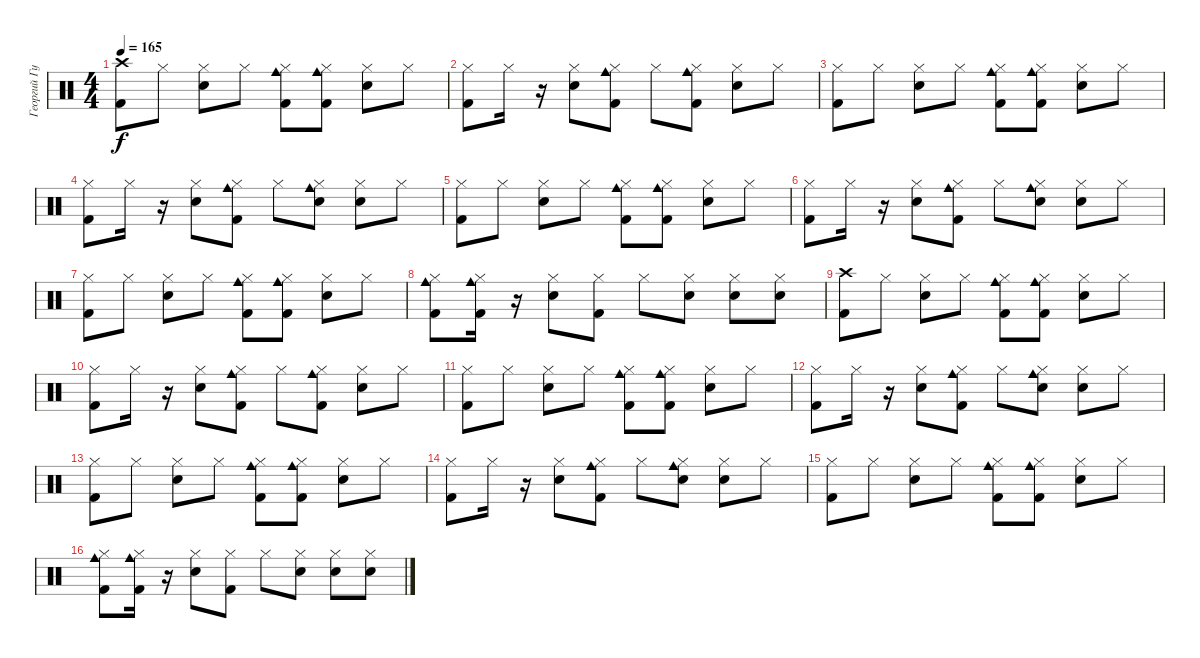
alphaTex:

\track ("Георгий Гурьянов" "Георгий Гу") {instrument percussion}
\staff {score}
\articulation defaults
\ts (4 4)
\tempo 165
\clef neutral
\ks c
("Crash high (hit)" "Kick (hit) 2").8{dy f} "Hi-Hat (closed)".8 ("Hi-Hat (closed)" "Snare (hit) 2").8 "Hi-Hat (closed)".8 ("Hi-Hat (closed)" "Cowbell medium (hit)" "Kick (hit) 2").8 ("Hi-Hat (closed)" "Cowbell medium (hit)" "Kick (hit) 2").8 ("Hi-Hat (closed)" "Snare (hit) 2").8 "Hi-Hat (closed)".8 |
("Hi-Hat (closed)" "Kick (hit) 2").8 "Hi-Hat (closed)".16 r.16 ("Hi-Hat (closed)" "Snare (hit) 2").8 ("Hi-Hat (closed)" "Kick (hit) 2" "Cowbell medium (hit)").8 "Hi-Hat (closed)".8 ("Hi-Hat (closed)" "Kick (hit) 2" "Cowbell medium (hit)").8 ("Hi-Hat (closed)" "Snare (hit) 2").8 "Hi-Hat (closed)".8 |
("Hi-Hat (closed)" "Kick (hit) 2").8 "Hi-Hat (closed)".8 ("Hi-Hat (closed)" "Snare (hit) 2").8 "Hi-Hat (closed)".8 ("Hi-Hat (closed)" "Cowbell medium (hit)" "Kick (hit) 2").8 ("Hi-Hat (closed)" "Cowbell medium (hit)" "Kick (hit) 2").8 ("Hi-Hat (closed)" "Snare (hit) 2").8 "Hi-Hat (closed)".8 |
("Hi-Hat (closed)" "Kick (hit) 2").8 "Hi-Hat (closed)".16 r.16 ("Hi-Hat (closed)" "Snare (hit) 2").8 ("Hi-Hat (closed)" "Kick (hit) 2" "Cowbell medium (hit)").8 "Hi-Hat (closed)".8 ("Hi-Hat (closed)" "Hand Clap (hit)" "Cowbell medium (hit)").8 ("Hi-Hat (closed)" "Snare (hit) 2").8 "Hi-Hat (closed)".8 |
("Hi-Hat (closed)" "Kick (hit) 2").8 "Hi-Hat (closed)".8 ("Hi-Hat (closed)" "Snare (hit) 2").8 "Hi-Hat (closed)".8 ("Hi-Hat (closed)" "Cowbell medium (hit)" "Kick (hit) 2").8 ("Hi-Hat (closed)" "Cowbell medium (hit)" "Kick (hit) 2").8 ("Hi-Hat (closed)" "Snare (hit) 2").8 "Hi-Hat (closed)".8 |
("Hi-Hat (closed)" "Kick (hit) 2").8 "Hi-Hat (closed)".16 r.16 ("Hi-Hat (closed)" "Snare (hit) 2").8 ("Hi-Hat (closed)" "Kick (hit) 2" "Cowbell medium (hit)").8 "Hi-Hat (closed)".8 ("Hi-Hat (closed)" "Hand Clap (hit)" "Cowbell medium (hit)").8 ("Hi-Hat (closed)" "Snare (hit) 2").8 "Hi-Hat (closed)".8 |
("Hi-Hat (closed)" "Kick (hit) 2").8 "Hi-Hat (closed)".8 ("Hi-Hat (closed)" "Snare (hit) 2").8 "Hi-Hat (closed)".8 ("Hi-Hat (closed)" "Cowbell medium (hit)" "Kick (hit) 2").8 ("Hi-Hat (closed)" "Cowbell medium (hit)" "Kick (hit) 2").8 ("Hi-Hat (closed)" "Snare (hit) 2").8 "Hi-Hat (closed)".8 |
("Cowbell medium (hit)" "Hi-Hat (closed)" "Kick (hit) 2").8 ("Cowbell medium (hit)" "Kick (hit) 2" "Hi-Hat (closed)").16 r.16 ("Hi-Hat (closed)" "Snare (hit) 2").8 ("Hi-Hat (closed)" "Kick (hit) 2").8 "Hi-Hat (closed)".8 ("Hi-Hat (closed)" "Snare (hit) 2").8 ("Hi-Hat (closed)" "Snare (hit) 2").8 ("Snare (hit) 2" "Hi-Hat (closed)").8 |
("Crash high (hit)" "Kick (hit) 2").8{volume 12} "Hi-Hat (closed)".8 ("Hi-Hat (closed)" "Snare (hit) 2").8 "Hi-Hat (closed)".8 ("Hi-Hat (closed)" "Cowbell medium (hit)" "Kick (hit) 2").8 ("Hi-Hat (closed)" "Cowbell medium (hit)" "Kick (hit) 2").8 ("Hi-Hat (closed)" "Snare (hit) 2").8 "Hi-Hat (closed)".8 |
("Hi-Hat (closed)" "Kick (hit) 2").8 "Hi-Hat (closed)".16 r.16 ("Hi-Hat (closed)" "Snare (hit) 2").8 ("Hi-Hat (closed)" "Kick (hit) 2" "Cowbell medium (hit)").8 "Hi-Hat (closed)".8 ("Hi-Hat (closed)" "Kick (hit) 2" "Cowbell medium (hit)").8 ("Hi-Hat (closed)" "Snare (hit) 2").8 "Hi-Hat (closed)".8 |
("Hi-Hat (closed)" "Kick (hit) 2").8 "Hi-Hat (closed)".8 ("Hi-Hat (closed)" "Snare (hit) 2").8 "Hi-Hat (closed)".8 ("Hi-Hat (closed)" "Cowbell medium (hit)" "Kick (hit) 2").8 ("Hi-Hat (closed)" "Cowbell medium (hit)" "Kick (hit) 2").8 ("Hi-Hat (closed)" "Snare (hit) 2").8 "Hi-Hat (closed)".8 |
("Hi-Hat (closed)" "Kick (hit) 2").8 "Hi-Hat (closed)".16 r.16 ("Hi-Hat (closed)" "Snare (hit) 2").8 ("Hi-Hat (closed)" "Kick (hit) 2" "Cowbell medium (hit)").8 "Hi-Hat (closed)".8 ("Hi-Hat (closed)" "Hand Clap (hit)" "Cowbell medium (hit)").8 ("Hi-Hat (closed)" "Snare (hit) 2").8 "Hi-Hat (closed)".8 |
("Hi-Hat (closed)" "Kick (hit) 2").8 "Hi-Hat (closed)".8 ("Hi-Hat (closed)" "Snare (hit) 2").8 "Hi-Hat (closed)".8 ("Hi-Hat (closed)" "Cowbell medium (hit)" "Kick (hit) 2").8 ("Hi-Hat (closed)" "Cowbell medium (hit)" "Kick (hit) 2").8 ("Hi-Hat (closed)" "Snare (hit) 2").8 "Hi-Hat (closed)".8 |
("Hi-Hat (closed)" "Kick (hit) 2").8 "Hi-Hat (closed)".16 r.16 ("Hi-Hat (closed)" "Snare (hit) 2").8 ("Hi-Hat (closed)" "Kick (hit) 2" "Cowbell medium (hit)").8 "Hi-Hat (closed)".8 ("Hi-Hat (closed)" "Hand Clap (hit)" "Cowbell medium (hit)").8 ("Hi-Hat (closed)" "Snare (hit) 2").8 "Hi-Hat (closed)".8 |
("Hi-Hat (closed)" "Kick (hit) 2").8 "Hi-Hat (closed)".8 ("Hi-Hat (closed)" "Snare (hit) 2").8 "Hi-Hat (closed)".8 ("Hi-Hat (closed)" "Cowbell medium (hit)" "Kick (hit) 2").8 ("Hi-Hat (closed)" "Cowbell medium (hit)" "Kick (hit) 2").8 ("Hi-Hat (closed)" "Snare (hit) 2").8 "Hi-Hat (closed)".8 |
("Cowbell medium (hit)" "Hi-Hat (closed)" "Kick (hit) 2").8 ("Cowbell medium (hit)" "Kick (hit) 2" "Hi-Hat (closed)").16 r.16 ("Hi-Hat (closed)" "Snare (hit) 2").8 ("Hi-Hat (closed)" "Kick (hit) 2").8 "Hi-Hat (closed)".8 ("Hi-Hat (closed)" "Snare (hit) 2").8 ("Hi-Hat (closed)" "Snare (hit) 2").8 ("Snare (hit) 2" "Hi-Hat (closed)").8
